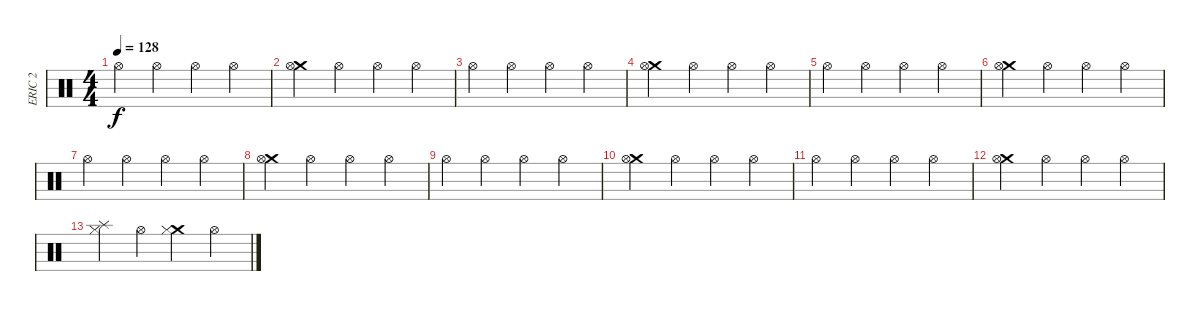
\track ("ERIC 2" "ERIC 2") {instrument percussion}
\staff {score}
\articulation defaults
\ts (4 4)
\tempo 128
\clef neutral
\ks c "Hi-Hat (open)".4{dy f} "Hi-Hat (open)".4 "Hi-Hat (open)".4 "Hi-Hat (open)".4
|
("Crash medium (hit)" "Hi-Hat (open)").4 "Hi-Hat (open)".4 "Hi-Hat (open)".4 "Hi-Hat (open)".4 |
"Hi-Hat (open)".4 "Hi-Hat (open)".4 "Hi-Hat (open)".4 "Hi-Hat (open)".4 |
("Crash medium (hit)" "Hi-Hat (open)").4 "Hi-Hat (open)".4 "Hi-Hat (open)".4 "Hi-Hat (open)".4 |
"Hi-Hat (open)".4 "Hi-Hat (open)".4 "Hi-Hat (open)".4 "Hi-Hat (open)".4 |
("Crash medium (hit)" "Hi-Hat (open)").4 "Hi-Hat (open)".4 "Hi-Hat (open)".4 "Hi-Hat (open)".4 |
"Hi-Hat (open)".4 "Hi-Hat (open)".4 "Hi-Hat (open)".4 "Hi-Hat (open)".4 |
("Crash medium (hit)" "Hi-Hat (open)").4 "Hi-Hat (open)".4 "Hi-Hat (open)".4 "Hi-Hat (open)".4 |
"Hi-Hat (open)".4 "Hi-Hat (open)".4 "Hi-Hat (open)".4 "Hi-Hat (open)".4 |
("Crash medium (hit)" "Hi-Hat (open)").4 "Hi-Hat (open)".4 "Hi-Hat (open)".4 "Hi-Hat (open)".4 |
"Hi-Hat (open)".4 "Hi-Hat (open)".4 "Hi-Hat (open)".4 "Hi-Hat (open)".4 |
("Crash medium (hit)" "Hi-Hat (open)").4 "Hi-Hat (open)".4 "Hi-Hat (open)".4 "Hi-Hat (open)".4 |
("Splash (hit)" "Hi-Hat (closed)").4 "Hi-Hat (open)".4 ("Crash medium (hit)" "Hi-Hat (closed)").4 "Hi-Hat (open)".4
